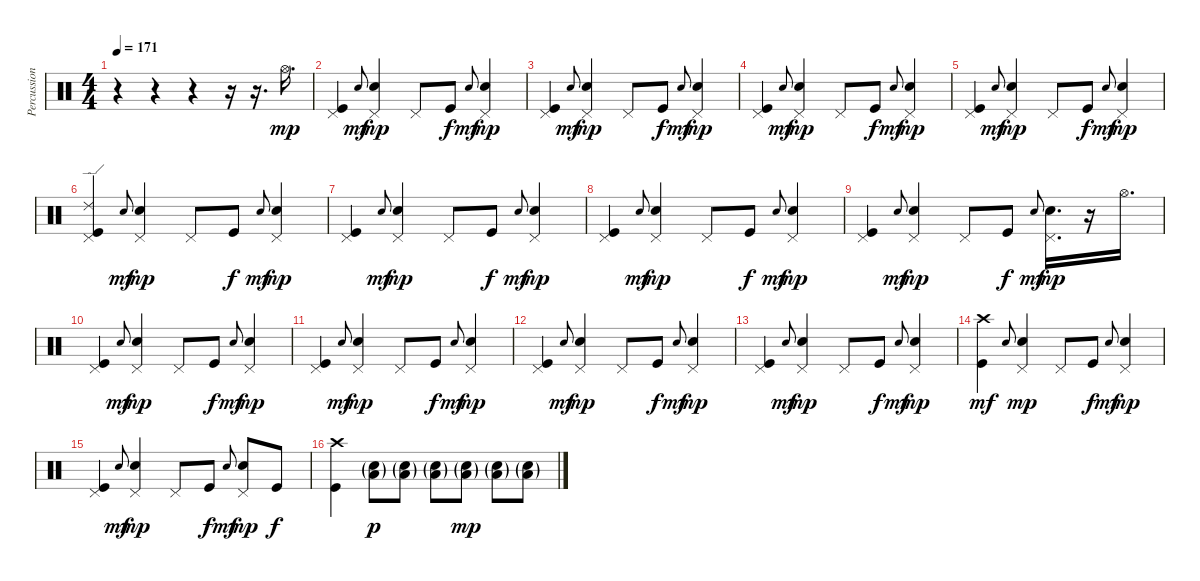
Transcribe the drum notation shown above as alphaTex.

\track ("Percussion" "Percussion") {instrument percussion}
\staff {score}
\articulation defaults
\ts (4 4)
\tempo 171
\clef neutral
\ks c
r.4{dy f} r.4 r.4 r.16 r.16{d} "Hi-Hat (open)".16{d dy mp} |
("Pedal Hi-Hat (hit)" "Kick (hit)").4 "Electric Snare (hit)".8{gr onbeat dy mf} ("Pedal Hi-Hat (hit)" "Electric Snare (hit)").4{dy mp} "Pedal Hi-Hat (hit)".8 "Kick (hit)".8{dy f} "Electric Snare (hit)".8{gr onbeat dy mf} ("Pedal Hi-Hat (hit)" "Electric Snare (hit)").4{dy mp} |
("Pedal Hi-Hat (hit)" "Kick (hit)").4 "Electric Snare (hit)".8{gr onbeat dy mf} ("Pedal Hi-Hat (hit)" "Electric Snare (hit)").4{dy mp} "Pedal Hi-Hat (hit)".8 "Kick (hit)".8{dy f} "Electric Snare (hit)".8{gr onbeat dy mf} ("Pedal Hi-Hat (hit)" "Electric Snare (hit)").4{dy mp} |
("Pedal Hi-Hat (hit)" "Kick (hit)").4 "Electric Snare (hit)".8{gr onbeat dy mf} ("Pedal Hi-Hat (hit)" "Electric Snare (hit)").4{dy mp} "Pedal Hi-Hat (hit)".8 "Kick (hit)".8{dy f} "Electric Snare (hit)".8{gr onbeat dy mf} ("Pedal Hi-Hat (hit)" "Electric Snare (hit)").4{dy mp} |
("Pedal Hi-Hat (hit)" "Kick (hit)").4 "Electric Snare (hit)".8{gr onbeat dy mf} ("Pedal Hi-Hat (hit)" "Electric Snare (hit)").4{dy mp} "Pedal Hi-Hat (hit)".8 "Kick (hit)".8{dy f} "Electric Snare (hit)".8{gr onbeat dy mf} ("Pedal Hi-Hat (hit)" "Electric Snare (hit)").4{dy mp} |
("Ride (edge) 2" "Pedal Hi-Hat (hit)" "Kick (hit)").4 "Electric Snare (hit)".8{gr onbeat dy mf} ("Pedal Hi-Hat (hit)" "Electric Snare (hit)").4{dy mp} "Pedal Hi-Hat (hit)".8 "Kick (hit)".8{dy f} "Electric Snare (hit)".8{gr onbeat dy mf} ("Pedal Hi-Hat (hit)" "Electric Snare (hit)").4{dy mp} |
("Pedal Hi-Hat (hit)" "Kick (hit)").4 "Electric Snare (hit)".8{gr onbeat dy mf} ("Pedal Hi-Hat (hit)" "Electric Snare (hit)").4{dy mp} "Pedal Hi-Hat (hit)".8 "Kick (hit)".8{dy f} "Electric Snare (hit)".8{gr onbeat dy mf} ("Pedal Hi-Hat (hit)" "Electric Snare (hit)").4{dy mp} |
("Pedal Hi-Hat (hit)" "Kick (hit)").4 "Electric Snare (hit)".8{gr onbeat dy mf} ("Pedal Hi-Hat (hit)" "Electric Snare (hit)").4{dy mp} "Pedal Hi-Hat (hit)".8 "Kick (hit)".8{dy f} "Electric Snare (hit)".8{gr onbeat dy mf} ("Pedal Hi-Hat (hit)" "Electric Snare (hit)").4{dy mp} |
("Pedal Hi-Hat (hit)" "Kick (hit)").4 "Electric Snare (hit)".8{gr onbeat dy mf} ("Pedal Hi-Hat (hit)" "Electric Snare (hit)").4{dy mp} "Pedal Hi-Hat (hit)".8 "Kick (hit)".8{dy f} "Electric Snare (hit)".8{gr onbeat dy mf} ("Pedal Hi-Hat (hit)" "Electric Snare (hit)").16{d dy mp} r.16 "Hi-Hat (open)".16{d} |
("Pedal Hi-Hat (hit)" "Kick (hit)").4 "Electric Snare (hit)".8{gr onbeat dy mf} ("Pedal Hi-Hat (hit)" "Electric Snare (hit)").4{dy mp} "Pedal Hi-Hat (hit)".8 "Kick (hit)".8{dy f} "Electric Snare (hit)".8{gr onbeat dy mf} ("Pedal Hi-Hat (hit)" "Electric Snare (hit)").4{dy mp} |
("Pedal Hi-Hat (hit)" "Kick (hit)").4 "Electric Snare (hit)".8{gr onbeat dy mf} ("Pedal Hi-Hat (hit)" "Electric Snare (hit)").4{dy mp} "Pedal Hi-Hat (hit)".8 "Kick (hit)".8{dy f} "Electric Snare (hit)".8{gr onbeat dy mf} ("Pedal Hi-Hat (hit)" "Electric Snare (hit)").4{dy mp} |
("Pedal Hi-Hat (hit)" "Kick (hit)").4 "Electric Snare (hit)".8{gr onbeat dy mf} ("Pedal Hi-Hat (hit)" "Electric Snare (hit)").4{dy mp} "Pedal Hi-Hat (hit)".8 "Kick (hit)".8{dy f} "Electric Snare (hit)".8{gr onbeat dy mf} ("Pedal Hi-Hat (hit)" "Electric Snare (hit)").4{dy mp} |
("Pedal Hi-Hat (hit)" "Kick (hit)").4 "Electric Snare (hit)".8{gr onbeat dy mf} ("Pedal Hi-Hat (hit)" "Electric Snare (hit)").4{dy mp} "Pedal Hi-Hat (hit)".8 "Kick (hit)".8{dy f} "Electric Snare (hit)".8{gr onbeat dy mf} ("Pedal Hi-Hat (hit)" "Electric Snare (hit)").4{dy mp} |
("Crash high (hit)" "Kick (hit)").4{dy mf} "Electric Snare (hit)".8{gr onbeat} ("Pedal Hi-Hat (hit)" "Electric Snare (hit)").4{dy mp} "Pedal Hi-Hat (hit)".8 "Kick (hit)".8{dy f} "Electric Snare (hit)".8{gr onbeat dy mf} ("Pedal Hi-Hat (hit)" "Electric Snare (hit)").4{dy mp} |
("Pedal Hi-Hat (hit)" "Kick (hit)").4 "Electric Snare (hit)".8{gr onbeat dy mf} ("Pedal Hi-Hat (hit)" "Electric Snare (hit)").4{dy mp} "Pedal Hi-Hat (hit)".8 "Kick (hit)".8{dy f} "Electric Snare (hit)".8{gr onbeat dy mf} ("Pedal Hi-Hat (hit)" "Electric Snare (hit)").8{dy mp} "Kick (hit)".8{dy f} |
("Crash high (hit)" "Kick (hit)").4 ("Low Floor Tom (hit)"{g} "Electric Snare (hit)"{g}).8{dy p} ("Low Floor Tom (hit)"{g} "Electric Snare (hit)"{g}).8 ("Low Floor Tom (hit)"{g} "Electric Snare (hit)"{g}).8 ("Low Floor Tom (hit)"{g} "Electric Snare (hit)"{g}).8{dy mp} ("Low Floor Tom (hit)"{g} "Electric Snare (hit)"{g}).8 ("Low Floor Tom (hit)"{g} "Electric Snare (hit)"{g}).8
